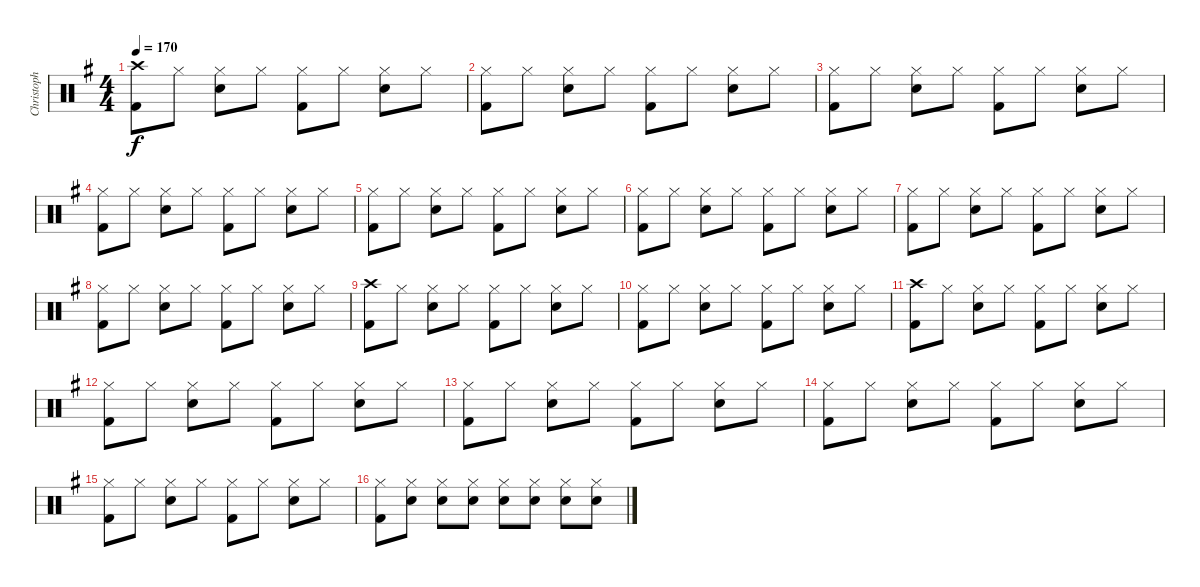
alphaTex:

\track ("Christoph Doom Schneider - Drums" "Christoph ") {instrument percussion}
\staff {score}
\articulation defaults
\ts (4 4)
\tempo 170
\clef neutral
\ks g
("Crash high (hit)" "Kick (hit) 2").8{dy f} "Hi-Hat (closed)".8 ("Hi-Hat (closed)" "Electric Snare (hit)").8 "Hi-Hat (closed)".8 ("Hi-Hat (closed)" "Kick (hit) 2").8 "Hi-Hat (closed)".8 ("Hi-Hat (closed)" "Electric Snare (hit)").8 "Hi-Hat (closed)".8 |
("Hi-Hat (closed)" "Kick (hit) 2").8 "Hi-Hat (closed)".8 ("Hi-Hat (closed)" "Electric Snare (hit)").8 "Hi-Hat (closed)".8 ("Hi-Hat (closed)" "Kick (hit) 2").8 "Hi-Hat (closed)".8 ("Hi-Hat (closed)" "Electric Snare (hit)").8 "Hi-Hat (closed)".8 |
("Hi-Hat (closed)" "Kick (hit) 2").8 "Hi-Hat (closed)".8 ("Hi-Hat (closed)" "Electric Snare (hit)").8 "Hi-Hat (closed)".8 ("Hi-Hat (closed)" "Kick (hit) 2").8 "Hi-Hat (closed)".8 ("Hi-Hat (closed)" "Electric Snare (hit)").8 "Hi-Hat (closed)".8 |
("Hi-Hat (closed)" "Kick (hit) 2").8 "Hi-Hat (closed)".8 ("Hi-Hat (closed)" "Electric Snare (hit)").8 "Hi-Hat (closed)".8 ("Hi-Hat (closed)" "Kick (hit) 2").8 "Hi-Hat (closed)".8 ("Hi-Hat (closed)" "Electric Snare (hit)").8 "Hi-Hat (closed)".8 |
("Hi-Hat (closed)" "Kick (hit) 2").8 "Hi-Hat (closed)".8 ("Hi-Hat (closed)" "Electric Snare (hit)").8 "Hi-Hat (closed)".8 ("Hi-Hat (closed)" "Kick (hit) 2").8 "Hi-Hat (closed)".8 ("Hi-Hat (closed)" "Electric Snare (hit)").8 "Hi-Hat (closed)".8 |
("Hi-Hat (closed)" "Kick (hit) 2").8 "Hi-Hat (closed)".8 ("Hi-Hat (closed)" "Electric Snare (hit)").8 "Hi-Hat (closed)".8 ("Hi-Hat (closed)" "Kick (hit) 2").8 "Hi-Hat (closed)".8 ("Hi-Hat (closed)" "Electric Snare (hit)").8 "Hi-Hat (closed)".8 |
("Hi-Hat (closed)" "Kick (hit) 2").8 "Hi-Hat (closed)".8 ("Hi-Hat (closed)" "Electric Snare (hit)").8 "Hi-Hat (closed)".8 ("Hi-Hat (closed)" "Kick (hit) 2").8 "Hi-Hat (closed)".8 ("Hi-Hat (closed)" "Electric Snare (hit)").8 "Hi-Hat (closed)".8 |
("Hi-Hat (closed)" "Kick (hit) 2").8 "Hi-Hat (closed)".8 ("Hi-Hat (closed)" "Electric Snare (hit)").8 "Hi-Hat (closed)".8 ("Hi-Hat (closed)" "Kick (hit) 2").8 "Hi-Hat (closed)".8 ("Hi-Hat (closed)" "Electric Snare (hit)").8 "Hi-Hat (closed)".8 |
("Crash high (hit)" "Kick (hit) 2").8 "Hi-Hat (closed)".8 ("Hi-Hat (closed)" "Electric Snare (hit)").8 "Hi-Hat (closed)".8 ("Hi-Hat (closed)" "Kick (hit) 2").8 "Hi-Hat (closed)".8 ("Hi-Hat (closed)" "Electric Snare (hit)").8 "Hi-Hat (closed)".8 |
("Hi-Hat (closed)" "Kick (hit) 2").8 "Hi-Hat (closed)".8 ("Hi-Hat (closed)" "Electric Snare (hit)").8 "Hi-Hat (closed)".8 ("Hi-Hat (closed)" "Kick (hit) 2").8 "Hi-Hat (closed)".8 ("Hi-Hat (closed)" "Electric Snare (hit)").8 "Hi-Hat (closed)".8 |
("Crash high (hit)" "Kick (hit) 2").8 "Hi-Hat (closed)".8 ("Hi-Hat (closed)" "Electric Snare (hit)").8 "Hi-Hat (closed)".8 ("Hi-Hat (closed)" "Kick (hit) 2").8 "Hi-Hat (closed)".8 ("Hi-Hat (closed)" "Electric Snare (hit)").8 "Hi-Hat (closed)".8 |
("Hi-Hat (closed)" "Kick (hit) 2").8 "Hi-Hat (closed)".8 ("Hi-Hat (closed)" "Electric Snare (hit)").8 "Hi-Hat (closed)".8 ("Hi-Hat (closed)" "Kick (hit) 2").8 "Hi-Hat (closed)".8 ("Hi-Hat (closed)" "Electric Snare (hit)").8 "Hi-Hat (closed)".8 |
("Hi-Hat (closed)" "Kick (hit) 2").8 "Hi-Hat (closed)".8 ("Hi-Hat (closed)" "Electric Snare (hit)").8 "Hi-Hat (closed)".8 ("Hi-Hat (closed)" "Kick (hit) 2").8 "Hi-Hat (closed)".8 ("Hi-Hat (closed)" "Electric Snare (hit)").8 "Hi-Hat (closed)".8 |
("Hi-Hat (closed)" "Kick (hit) 2").8 "Hi-Hat (closed)".8 ("Hi-Hat (closed)" "Electric Snare (hit)").8 "Hi-Hat (closed)".8 ("Hi-Hat (closed)" "Kick (hit) 2").8 "Hi-Hat (closed)".8 ("Hi-Hat (closed)" "Electric Snare (hit)").8 "Hi-Hat (closed)".8 |
("Hi-Hat (closed)" "Kick (hit) 2").8 "Hi-Hat (closed)".8 ("Hi-Hat (closed)" "Electric Snare (hit)").8 "Hi-Hat (closed)".8 ("Hi-Hat (closed)" "Kick (hit) 2").8 "Hi-Hat (closed)".8 ("Hi-Hat (closed)" "Electric Snare (hit)").8 "Hi-Hat (closed)".8 |
("Hi-Hat (closed)" "Kick (hit) 2").8 ("Hi-Hat (closed)" "Electric Snare (hit)").8 ("Hi-Hat (closed)" "Electric Snare (hit)").8 ("Hi-Hat (closed)" "Electric Snare (hit)").8 ("Hi-Hat (closed)" "Electric Snare (hit)").8 ("Hi-Hat (closed)" "Electric Snare (hit)").8 ("Hi-Hat (closed)" "Electric Snare (hit)").8 ("Hi-Hat (closed)" "Electric Snare (hit)").8
